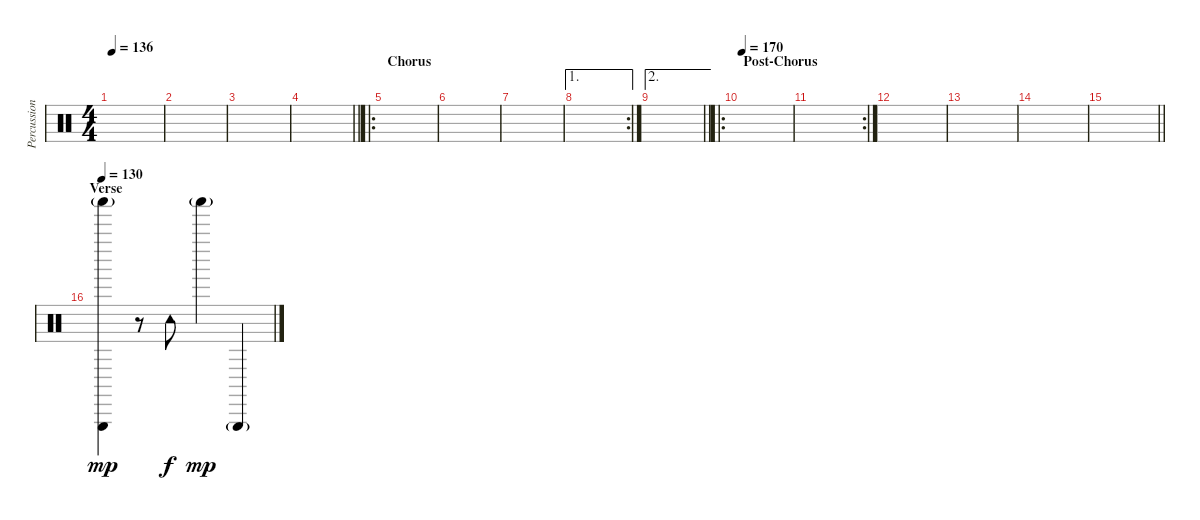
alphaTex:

\track ("Percussion / FX" "Percussion") {instrument percussion}
\staff {score}
\articulation defaults
\ts (4 4)
\tempo 136
\clef neutral
\ks c
|
|
|
\barLineRight lightlight
|
\ro
\section ("" "Chorus")
|
|
|
\ae 1
\rc 2
|
\ae 2
\barLineRight lightlight
|
\ro
\section ("" "Post-Chorus")
\tempo 170
|
\rc 2
|
|
|
|
\barLineRight lightlight
|
\section ("" "Verse")
\tempo 130
("Triangle (hit)" "Shaker (hit)"{g}).4{dy mp} r.8 "Tambourine (hit)".8{dy f} "Shaker (hit)"{g}.4{dy mp} "Triangle (hit)"{g}.4
